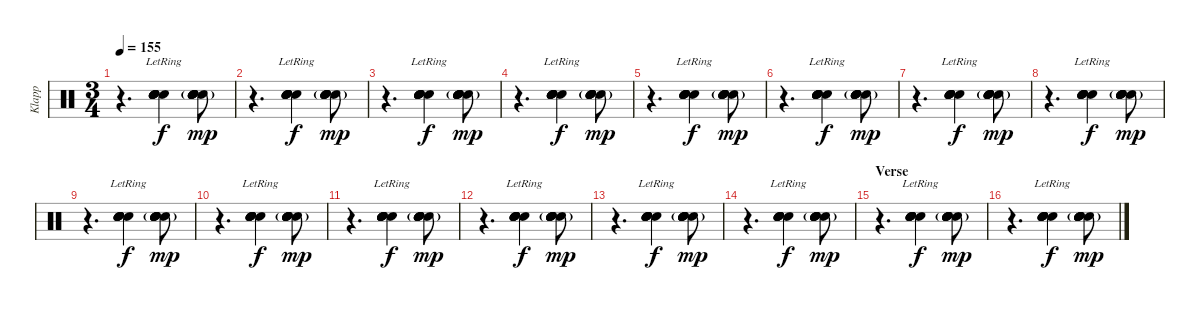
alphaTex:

\track ("Klapp" "Klapp") {instrument percussion}
\staff {score}
\articulation defaults
\ts (3 4)
\tempo 155
\clef neutral
\ks c
r.4{d dy mp} ("Hand Clap (hit)"{lr} "Hand Clap (hit)"{lr} "Hand Clap (hit)"{lr} "Hand Clap (hit)"{lr} "Hand Clap (hit)"{lr} "Hand Clap (hit)"{lr}).4{dy f} ("Hand Clap (hit)"{g} "Hand Clap (hit)"{g} "Hand Clap (hit)"{g} "Hand Clap (hit)"{g} "Hand Clap (hit)"{g} "Hand Clap (hit)"{g}).8{dy mp} |
r.4{d} ("Hand Clap (hit)"{lr} "Hand Clap (hit)"{lr} "Hand Clap (hit)"{lr} "Hand Clap (hit)"{lr} "Hand Clap (hit)"{lr} "Hand Clap (hit)"{lr}).4{dy f} ("Hand Clap (hit)"{g} "Hand Clap (hit)"{g} "Hand Clap (hit)"{g} "Hand Clap (hit)"{g} "Hand Clap (hit)"{g} "Hand Clap (hit)"{g}).8{dy mp} |
r.4{d} ("Hand Clap (hit)"{lr} "Hand Clap (hit)"{lr} "Hand Clap (hit)"{lr} "Hand Clap (hit)"{lr} "Hand Clap (hit)"{lr} "Hand Clap (hit)"{lr}).4{dy f} ("Hand Clap (hit)"{g} "Hand Clap (hit)"{g} "Hand Clap (hit)"{g} "Hand Clap (hit)"{g} "Hand Clap (hit)"{g} "Hand Clap (hit)"{g}).8{dy mp} |
r.4{d} ("Hand Clap (hit)"{lr} "Hand Clap (hit)"{lr} "Hand Clap (hit)"{lr} "Hand Clap (hit)"{lr} "Hand Clap (hit)"{lr} "Hand Clap (hit)"{lr}).4{dy f} ("Hand Clap (hit)"{g} "Hand Clap (hit)"{g} "Hand Clap (hit)"{g} "Hand Clap (hit)"{g} "Hand Clap (hit)"{g} "Hand Clap (hit)"{g}).8{dy mp} |
r.4{d} ("Hand Clap (hit)"{lr} "Hand Clap (hit)"{lr} "Hand Clap (hit)"{lr} "Hand Clap (hit)"{lr} "Hand Clap (hit)"{lr} "Hand Clap (hit)"{lr}).4{dy f} ("Hand Clap (hit)"{g} "Hand Clap (hit)"{g} "Hand Clap (hit)"{g} "Hand Clap (hit)"{g} "Hand Clap (hit)"{g} "Hand Clap (hit)"{g}).8{dy mp} |
r.4{d} ("Hand Clap (hit)"{lr} "Hand Clap (hit)"{lr} "Hand Clap (hit)"{lr} "Hand Clap (hit)"{lr} "Hand Clap (hit)"{lr} "Hand Clap (hit)"{lr}).4{dy f} ("Hand Clap (hit)"{g} "Hand Clap (hit)"{g} "Hand Clap (hit)"{g} "Hand Clap (hit)"{g} "Hand Clap (hit)"{g} "Hand Clap (hit)"{g}).8{dy mp} |
r.4{d} ("Hand Clap (hit)"{lr} "Hand Clap (hit)"{lr} "Hand Clap (hit)"{lr} "Hand Clap (hit)"{lr} "Hand Clap (hit)"{lr} "Hand Clap (hit)"{lr}).4{dy f} ("Hand Clap (hit)"{g} "Hand Clap (hit)"{g} "Hand Clap (hit)"{g} "Hand Clap (hit)"{g} "Hand Clap (hit)"{g} "Hand Clap (hit)"{g}).8{dy mp} |
r.4{d} ("Hand Clap (hit)"{lr} "Hand Clap (hit)"{lr} "Hand Clap (hit)"{lr} "Hand Clap (hit)"{lr} "Hand Clap (hit)"{lr} "Hand Clap (hit)"{lr}).4{dy f} ("Hand Clap (hit)"{g} "Hand Clap (hit)"{g} "Hand Clap (hit)"{g} "Hand Clap (hit)"{g} "Hand Clap (hit)"{g} "Hand Clap (hit)"{g}).8{dy mp} |
r.4{d} ("Hand Clap (hit)"{lr} "Hand Clap (hit)"{lr} "Hand Clap (hit)"{lr} "Hand Clap (hit)"{lr} "Hand Clap (hit)"{lr} "Hand Clap (hit)"{lr}).4{dy f} ("Hand Clap (hit)"{g} "Hand Clap (hit)"{g} "Hand Clap (hit)"{g} "Hand Clap (hit)"{g} "Hand Clap (hit)"{g} "Hand Clap (hit)"{g}).8{dy mp} |
r.4{d} ("Hand Clap (hit)"{lr} "Hand Clap (hit)"{lr} "Hand Clap (hit)"{lr} "Hand Clap (hit)"{lr} "Hand Clap (hit)"{lr} "Hand Clap (hit)"{lr}).4{dy f} ("Hand Clap (hit)"{g} "Hand Clap (hit)"{g} "Hand Clap (hit)"{g} "Hand Clap (hit)"{g} "Hand Clap (hit)"{g} "Hand Clap (hit)"{g}).8{dy mp} |
r.4{d} ("Hand Clap (hit)"{lr} "Hand Clap (hit)"{lr} "Hand Clap (hit)"{lr} "Hand Clap (hit)"{lr} "Hand Clap (hit)"{lr} "Hand Clap (hit)"{lr}).4{dy f} ("Hand Clap (hit)"{g} "Hand Clap (hit)"{g} "Hand Clap (hit)"{g} "Hand Clap (hit)"{g} "Hand Clap (hit)"{g} "Hand Clap (hit)"{g}).8{dy mp} |
r.4{d} ("Hand Clap (hit)"{lr} "Hand Clap (hit)"{lr} "Hand Clap (hit)"{lr} "Hand Clap (hit)"{lr} "Hand Clap (hit)"{lr} "Hand Clap (hit)"{lr}).4{dy f} ("Hand Clap (hit)"{g} "Hand Clap (hit)"{g} "Hand Clap (hit)"{g} "Hand Clap (hit)"{g} "Hand Clap (hit)"{g} "Hand Clap (hit)"{g}).8{dy mp} |
r.4{d} ("Hand Clap (hit)"{lr} "Hand Clap (hit)"{lr} "Hand Clap (hit)"{lr} "Hand Clap (hit)"{lr} "Hand Clap (hit)"{lr} "Hand Clap (hit)"{lr}).4{dy f} ("Hand Clap (hit)"{g} "Hand Clap (hit)"{g} "Hand Clap (hit)"{g} "Hand Clap (hit)"{g} "Hand Clap (hit)"{g} "Hand Clap (hit)"{g}).8{dy mp} |
r.4{d} ("Hand Clap (hit)"{lr} "Hand Clap (hit)"{lr} "Hand Clap (hit)"{lr} "Hand Clap (hit)"{lr} "Hand Clap (hit)"{lr} "Hand Clap (hit)"{lr}).4{dy f} ("Hand Clap (hit)"{g} "Hand Clap (hit)"{g} "Hand Clap (hit)"{g} "Hand Clap (hit)"{g} "Hand Clap (hit)"{g} "Hand Clap (hit)"{g}).8{dy mp} |
\section ("" "Verse")
r.4{d} ("Hand Clap (hit)"{lr} "Hand Clap (hit)"{lr} "Hand Clap (hit)"{lr} "Hand Clap (hit)"{lr} "Hand Clap (hit)"{lr} "Hand Clap (hit)"{lr}).4{dy f} ("Hand Clap (hit)"{g} "Hand Clap (hit)"{g} "Hand Clap (hit)"{g} "Hand Clap (hit)"{g} "Hand Clap (hit)"{g} "Hand Clap (hit)"{g}).8{dy mp} |
r.4{d} ("Hand Clap (hit)"{lr} "Hand Clap (hit)"{lr} "Hand Clap (hit)"{lr} "Hand Clap (hit)"{lr} "Hand Clap (hit)"{lr} "Hand Clap (hit)"{lr}).4{dy f} ("Hand Clap (hit)"{g} "Hand Clap (hit)"{g} "Hand Clap (hit)"{g} "Hand Clap (hit)"{g} "Hand Clap (hit)"{g} "Hand Clap (hit)"{g}).8{dy mp}
